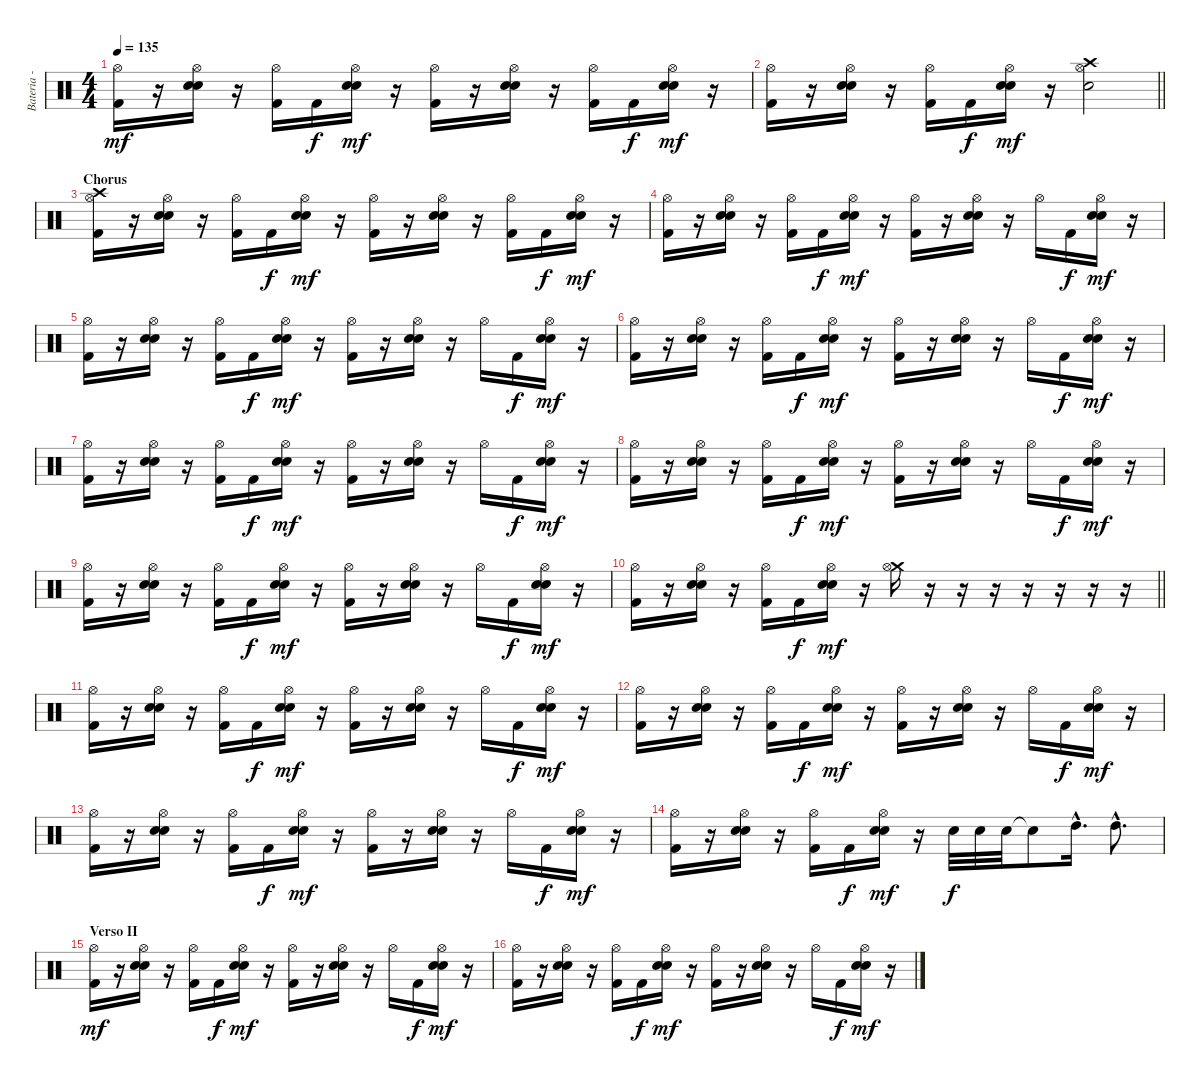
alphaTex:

\track ("Bateria - Larzon" "Bateria - ") {instrument percussion}
\staff {score}
\articulation defaults
\ts (4 4)
\tempo 135
\clef neutral
\ks c
("Kick (hit) 2" "Hi-Hat (open)").16{dy mf} r.16 ("Electric Snare (hit)" "Electric Snare (hit)" "Hi-Hat (open)").16 r.16 ("Kick (hit) 2" "Hi-Hat (open)").16 "Kick (hit) 2".16{dy f} ("Electric Snare (hit)" "Electric Snare (hit)" "Hi-Hat (open)").16{dy mf} r.16 ("Kick (hit) 2" "Hi-Hat (open)").16 r.16 ("Electric Snare (hit)" "Electric Snare (hit)" "Hi-Hat (open)").16 r.16 ("Kick (hit) 2" "Hi-Hat (open)").16 "Kick (hit) 2".16{dy f} ("Electric Snare (hit)" "Electric Snare (hit)" "Hi-Hat (open)").16{dy mf} r.16 |
\barLineRight lightlight
("Kick (hit) 2" "Hi-Hat (open)").16 r.16 ("Electric Snare (hit)" "Electric Snare (hit)" "Hi-Hat (open)").16 r.16 ("Kick (hit) 2" "Hi-Hat (open)").16 "Kick (hit) 2".16{dy f} ("Electric Snare (hit)" "Electric Snare (hit)" "Hi-Hat (open)").16{dy mf} r.16 ("Crash high (hit)" "Electric Snare (hit)" "Hi-Hat (open)").2 |
\section ("" "Chorus")
("Kick (hit) 2" "Crash high (hit)" "Hi-Hat (open)").16 r.16 ("Electric Snare (hit)" "Electric Snare (hit)" "Hi-Hat (open)").16 r.16 ("Kick (hit) 2" "Hi-Hat (open)").16 "Kick (hit) 2".16{dy f} ("Electric Snare (hit)" "Electric Snare (hit)" "Hi-Hat (open)").16{dy mf} r.16 ("Kick (hit) 2" "Hi-Hat (open)").16 r.16 ("Electric Snare (hit)" "Electric Snare (hit)" "Hi-Hat (open)").16 r.16 ("Kick (hit) 2" "Hi-Hat (open)").16 "Kick (hit) 2".16{dy f} ("Electric Snare (hit)" "Electric Snare (hit)" "Hi-Hat (open)").16{dy mf} r.16 |
("Kick (hit) 2" "Hi-Hat (open)").16 r.16 ("Electric Snare (hit)" "Electric Snare (hit)" "Hi-Hat (open)").16 r.16 ("Kick (hit) 2" "Hi-Hat (open)").16 "Kick (hit) 2".16{dy f} ("Electric Snare (hit)" "Electric Snare (hit)" "Hi-Hat (open)").16{dy mf} r.16 ("Kick (hit) 2" "Hi-Hat (open)").16 r.16 ("Electric Snare (hit)" "Electric Snare (hit)" "Hi-Hat (open)").16 r.16 "Hi-Hat (open)".16 "Kick (hit) 2".16{dy f} ("Electric Snare (hit)" "Electric Snare (hit)" "Hi-Hat (open)").16{dy mf} r.16 |
("Kick (hit) 2" "Hi-Hat (open)").16 r.16 ("Electric Snare (hit)" "Electric Snare (hit)" "Hi-Hat (open)").16 r.16 ("Kick (hit) 2" "Hi-Hat (open)").16 "Kick (hit) 2".16{dy f} ("Electric Snare (hit)" "Electric Snare (hit)" "Hi-Hat (open)").16{dy mf} r.16 ("Kick (hit) 2" "Hi-Hat (open)").16 r.16 ("Electric Snare (hit)" "Electric Snare (hit)" "Hi-Hat (open)").16 r.16 "Hi-Hat (open)".16 "Kick (hit) 2".16{dy f} ("Electric Snare (hit)" "Electric Snare (hit)" "Hi-Hat (open)").16{dy mf} r.16 |
("Kick (hit) 2" "Hi-Hat (open)").16 r.16 ("Electric Snare (hit)" "Electric Snare (hit)" "Hi-Hat (open)").16 r.16 ("Kick (hit) 2" "Hi-Hat (open)").16 "Kick (hit) 2".16{dy f} ("Electric Snare (hit)" "Electric Snare (hit)" "Hi-Hat (open)").16{dy mf} r.16 ("Kick (hit) 2" "Hi-Hat (open)").16 r.16 ("Electric Snare (hit)" "Electric Snare (hit)" "Hi-Hat (open)").16 r.16 "Hi-Hat (open)".16 "Kick (hit) 2".16{dy f} ("Electric Snare (hit)" "Electric Snare (hit)" "Hi-Hat (open)").16{dy mf} r.16 |
("Kick (hit) 2" "Hi-Hat (open)").16 r.16 ("Electric Snare (hit)" "Electric Snare (hit)" "Hi-Hat (open)").16 r.16 ("Kick (hit) 2" "Hi-Hat (open)").16 "Kick (hit) 2".16{dy f} ("Electric Snare (hit)" "Electric Snare (hit)" "Hi-Hat (open)").16{dy mf} r.16 ("Kick (hit) 2" "Hi-Hat (open)").16 r.16 ("Electric Snare (hit)" "Electric Snare (hit)" "Hi-Hat (open)").16 r.16 "Hi-Hat (open)".16 "Kick (hit) 2".16{dy f} ("Electric Snare (hit)" "Electric Snare (hit)" "Hi-Hat (open)").16{dy mf} r.16 |
("Kick (hit) 2" "Hi-Hat (open)").16 r.16 ("Electric Snare (hit)" "Electric Snare (hit)" "Hi-Hat (open)").16 r.16 ("Kick (hit) 2" "Hi-Hat (open)").16 "Kick (hit) 2".16{dy f} ("Electric Snare (hit)" "Electric Snare (hit)" "Hi-Hat (open)").16{dy mf} r.16 ("Kick (hit) 2" "Hi-Hat (open)").16 r.16 ("Electric Snare (hit)" "Electric Snare (hit)" "Hi-Hat (open)").16 r.16 "Hi-Hat (open)".16 "Kick (hit) 2".16{dy f} ("Electric Snare (hit)" "Electric Snare (hit)" "Hi-Hat (open)").16{dy mf} r.16 |
("Kick (hit) 2" "Hi-Hat (open)").16 r.16 ("Electric Snare (hit)" "Electric Snare (hit)" "Hi-Hat (open)").16 r.16 ("Kick (hit) 2" "Hi-Hat (open)").16 "Kick (hit) 2".16{dy f} ("Electric Snare (hit)" "Electric Snare (hit)" "Hi-Hat (open)").16{dy mf} r.16 ("Kick (hit) 2" "Hi-Hat (open)").16 r.16 ("Electric Snare (hit)" "Electric Snare (hit)" "Hi-Hat (open)").16 r.16 "Hi-Hat (open)".16 "Kick (hit) 2".16{dy f} ("Electric Snare (hit)" "Electric Snare (hit)" "Hi-Hat (open)").16{dy mf} r.16 |
\barLineRight lightlight
("Kick (hit) 2" "Hi-Hat (open)").16 r.16 ("Electric Snare (hit)" "Electric Snare (hit)" "Hi-Hat (open)").16 r.16 ("Kick (hit) 2" "Hi-Hat (open)").16 "Kick (hit) 2".16{dy f} ("Electric Snare (hit)" "Electric Snare (hit)" "Hi-Hat (open)").16{dy mf} r.16 ("Crash medium (hit)" "Hi-Hat (open)").16 r.16 r.16 r.16 r.16 r.16 r.16 r.16 |
("Kick (hit) 2" "Hi-Hat (open)").16 r.16 ("Electric Snare (hit)" "Electric Snare (hit)" "Hi-Hat (open)").16 r.16 ("Kick (hit) 2" "Hi-Hat (open)").16 "Kick (hit) 2".16{dy f} ("Electric Snare (hit)" "Electric Snare (hit)" "Hi-Hat (open)").16{dy mf} r.16 ("Kick (hit) 2" "Hi-Hat (open)").16 r.16 ("Electric Snare (hit)" "Electric Snare (hit)" "Hi-Hat (open)").16 r.16 "Hi-Hat (open)".16 "Kick (hit) 2".16{dy f} ("Electric Snare (hit)" "Electric Snare (hit)" "Hi-Hat (open)").16{dy mf} r.16 |
("Kick (hit) 2" "Hi-Hat (open)").16 r.16 ("Electric Snare (hit)" "Electric Snare (hit)" "Hi-Hat (open)").16 r.16 ("Kick (hit) 2" "Hi-Hat (open)").16 "Kick (hit) 2".16{dy f} ("Electric Snare (hit)" "Electric Snare (hit)" "Hi-Hat (open)").16{dy mf} r.16 ("Kick (hit) 2" "Hi-Hat (open)").16 r.16 ("Electric Snare (hit)" "Electric Snare (hit)" "Hi-Hat (open)").16 r.16 "Hi-Hat (open)".16 "Kick (hit) 2".16{dy f} ("Electric Snare (hit)" "Electric Snare (hit)" "Hi-Hat (open)").16{dy mf} r.16 |
("Kick (hit) 2" "Hi-Hat (open)").16 r.16 ("Electric Snare (hit)" "Electric Snare (hit)" "Hi-Hat (open)").16 r.16 ("Kick (hit) 2" "Hi-Hat (open)").16 "Kick (hit) 2".16{dy f} ("Electric Snare (hit)" "Electric Snare (hit)" "Hi-Hat (open)").16{dy mf} r.16 ("Kick (hit) 2" "Hi-Hat (open)").16 r.16 ("Electric Snare (hit)" "Electric Snare (hit)" "Hi-Hat (open)").16 r.16 "Hi-Hat (open)".16 "Kick (hit) 2".16{dy f} ("Electric Snare (hit)" "Electric Snare (hit)" "Hi-Hat (open)").16{dy mf} r.16 |
("Kick (hit) 2" "Hi-Hat (open)").16 r.16 ("Electric Snare (hit)" "Electric Snare (hit)" "Hi-Hat (open)").16 r.16 ("Kick (hit) 2" "Hi-Hat (open)").16 "Kick (hit) 2".16{dy f} ("Electric Snare (hit)" "Electric Snare (hit)" "Hi-Hat (open)").16{dy mf} r.16 "Electric Snare (hit)".32{dy f} "Electric Snare (hit)".32 "Electric Snare (hit)".32 "Electric Snare (hit)"{t}.8 "High Tom (hit)"{hac}.16{d} "High Tom (hit)"{hac}.8{d} |
\section ("" "Verso II")
("Kick (hit) 2" "Hi-Hat (open)").16{dy mf} r.16 ("Electric Snare (hit)" "Electric Snare (hit)" "Hi-Hat (open)").16 r.16 ("Kick (hit) 2" "Hi-Hat (open)").16 "Kick (hit) 2".16{dy f} ("Electric Snare (hit)" "Electric Snare (hit)" "Hi-Hat (open)").16{dy mf} r.16 ("Kick (hit) 2" "Hi-Hat (open)").16 r.16 ("Electric Snare (hit)" "Electric Snare (hit)" "Hi-Hat (open)").16 r.16 "Hi-Hat (open)".16 "Kick (hit) 2".16{dy f} ("Electric Snare (hit)" "Electric Snare (hit)" "Hi-Hat (open)").16{dy mf} r.16 |
("Kick (hit) 2" "Hi-Hat (open)").16 r.16 ("Electric Snare (hit)" "Electric Snare (hit)" "Hi-Hat (open)").16 r.16 ("Kick (hit) 2" "Hi-Hat (open)").16 "Kick (hit) 2".16{dy f} ("Electric Snare (hit)" "Electric Snare (hit)" "Hi-Hat (open)").16{dy mf} r.16 ("Kick (hit) 2" "Hi-Hat (open)").16 r.16 ("Electric Snare (hit)" "Electric Snare (hit)" "Hi-Hat (open)").16 r.16 "Hi-Hat (open)".16 "Kick (hit) 2".16{dy f} ("Electric Snare (hit)" "Electric Snare (hit)" "Hi-Hat (open)").16{dy mf} r.16
